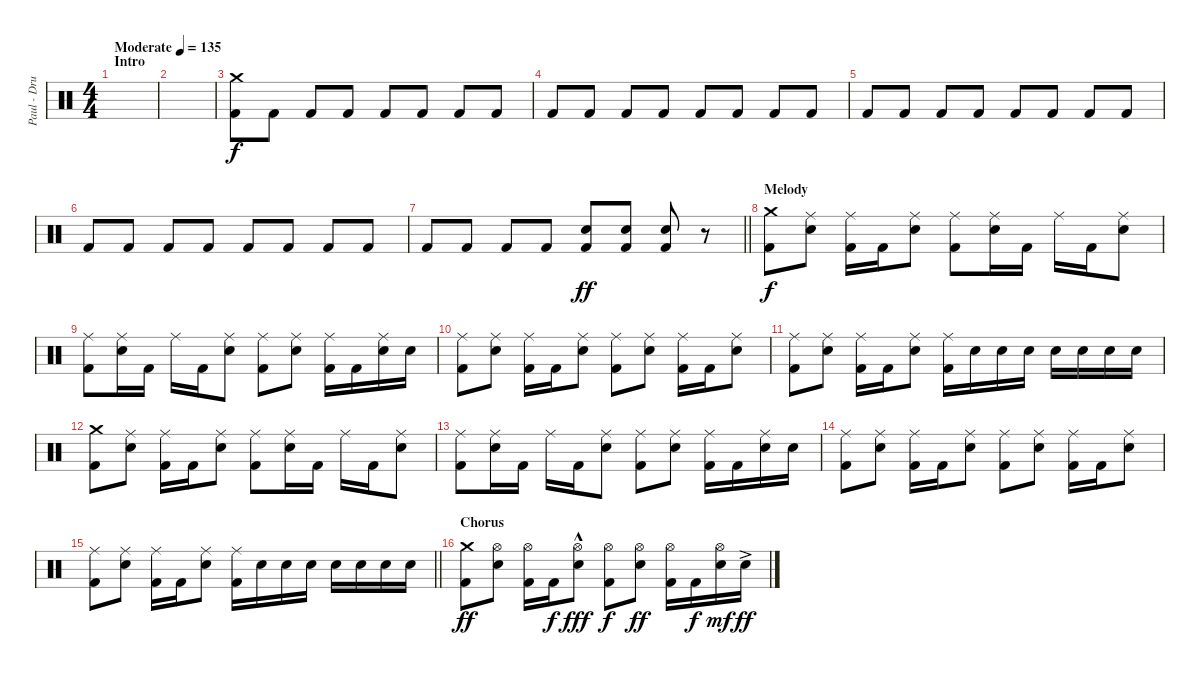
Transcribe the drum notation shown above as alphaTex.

\track ("Paul - Drums" "Paul - Dru") {instrument percussion}
\staff {score}
\articulation defaults
\ts (4 4)
\section ("" "Intro")
\tempo (135 "Moderate")
\clef neutral
\ks c
|
|
("Crash medium (hit)" "Kick (hit) 2").8 "Kick (hit) 2".8{dy f} "Kick (hit) 2".8 "Kick (hit) 2".8 "Kick (hit) 2".8 "Kick (hit) 2".8 "Kick (hit) 2".8 "Kick (hit) 2".8 |
"Kick (hit) 2".8 "Kick (hit) 2".8 "Kick (hit) 2".8 "Kick (hit) 2".8 "Kick (hit) 2".8 "Kick (hit) 2".8 "Kick (hit) 2".8 "Kick (hit) 2".8 |
"Kick (hit) 2".8 "Kick (hit) 2".8 "Kick (hit) 2".8 "Kick (hit) 2".8 "Kick (hit) 2".8 "Kick (hit) 2".8 "Kick (hit) 2".8 "Kick (hit) 2".8 |
"Kick (hit) 2".8 "Kick (hit) 2".8 "Kick (hit) 2".8 "Kick (hit) 2".8 "Kick (hit) 2".8 "Kick (hit) 2".8 "Kick (hit) 2".8 "Kick (hit) 2".8 |
\barLineRight lightlight "Kick (hit) 2".8 "Kick (hit) 2".8 "Kick (hit) 2".8 "Kick (hit) 2".8
("Electric Snare (hit)" "Kick (hit) 2").8{dy ff} ("Electric Snare (hit)" "Kick (hit) 2").8 ("Electric Snare (hit)" "Kick (hit) 2").8 r.8 |
\section ("" "Melody")
("Crash medium (hit)" "Kick (hit) 2").8{dy f} ("Ride (middle)" "Electric Snare (hit)").8 ("Ride (middle)" "Kick (hit) 2").16 "Kick (hit) 2".16 ("Ride (middle)" "Electric Snare (hit)").8 ("Ride (middle)" "Kick (hit) 2").8 ("Ride (middle)" "Electric Snare (hit)").16 "Kick (hit) 2".16 "Ride (middle)".16 "Kick (hit) 2".16 ("Ride (middle)" "Electric Snare (hit)").8 |
("Ride (middle)" "Kick (hit) 2").8 ("Ride (middle)" "Electric Snare (hit)").16 "Kick (hit) 2".16 "Ride (middle)".16 "Kick (hit) 2".16 ("Ride (middle)" "Electric Snare (hit)").8 ("Ride (middle)" "Kick (hit) 2").8 ("Ride (middle)" "Electric Snare (hit)").8 ("Ride (middle)" "Kick (hit) 2").16 "Kick (hit) 2".16 ("Ride (middle)" "Electric Snare (hit)").16 "Electric Snare (hit)".16 |
("Ride (middle)" "Kick (hit) 2").8 ("Ride (middle)" "Electric Snare (hit)").8 ("Ride (middle)" "Kick (hit) 2").16 "Kick (hit) 2".16 ("Ride (middle)" "Electric Snare (hit)").8 ("Ride (middle)" "Kick (hit) 2").8 ("Ride (middle)" "Electric Snare (hit)").8 ("Ride (middle)" "Kick (hit) 2").16 "Kick (hit) 2".16 ("Ride (middle)" "Electric Snare (hit)").8 |
("Ride (middle)" "Kick (hit) 2").8 ("Ride (middle)" "Electric Snare (hit)").8 ("Ride (middle)" "Kick (hit) 2").16 "Kick (hit) 2".16 ("Ride (middle)" "Electric Snare (hit)").8 ("Ride (middle)" "Kick (hit) 2").16 "Electric Snare (hit)".16 "Electric Snare (hit)".16 "Electric Snare (hit)".16 "Electric Snare (hit)".16 "Electric Snare (hit)".16 "Electric Snare (hit)".16 "Electric Snare (hit)".16 |
("Crash medium (hit)" "Kick (hit) 2").8 ("Ride (middle)" "Electric Snare (hit)").8 ("Ride (middle)" "Kick (hit) 2").16 "Kick (hit) 2".16 ("Ride (middle)" "Electric Snare (hit)").8 ("Ride (middle)" "Kick (hit) 2").8 ("Ride (middle)" "Electric Snare (hit)").16 "Kick (hit) 2".16 "Ride (middle)".16 "Kick (hit) 2".16 ("Ride (middle)" "Electric Snare (hit)").8 |
("Ride (middle)" "Kick (hit) 2").8 ("Ride (middle)" "Electric Snare (hit)").16 "Kick (hit) 2".16 "Ride (middle)".16 "Kick (hit) 2".16 ("Ride (middle)" "Electric Snare (hit)").8 ("Ride (middle)" "Kick (hit) 2").8 ("Ride (middle)" "Electric Snare (hit)").8 ("Ride (middle)" "Kick (hit) 2").16 "Kick (hit) 2".16 ("Ride (middle)" "Electric Snare (hit)").16 "Electric Snare (hit)".16 |
("Ride (middle)" "Kick (hit) 2").8 ("Ride (middle)" "Electric Snare (hit)").8 ("Ride (middle)" "Kick (hit) 2").16 "Kick (hit) 2".16 ("Ride (middle)" "Electric Snare (hit)").8 ("Ride (middle)" "Kick (hit) 2").8 ("Ride (middle)" "Electric Snare (hit)").8 ("Ride (middle)" "Kick (hit) 2").16 "Kick (hit) 2".16 ("Ride (middle)" "Electric Snare (hit)").8 |
\barLineRight lightlight
("Ride (middle)" "Kick (hit) 2").8 ("Ride (middle)" "Electric Snare (hit)").8 ("Ride (middle)" "Kick (hit) 2").16 "Kick (hit) 2".16 ("Ride (middle)" "Electric Snare (hit)").8 ("Ride (middle)" "Kick (hit) 2").16 "Electric Snare (hit)".16 "Electric Snare (hit)".16 "Electric Snare (hit)".16 "Electric Snare (hit)".16 "Electric Snare (hit)".16 "Electric Snare (hit)".16 "Electric Snare (hit)".16 |
\section ("" "Chorus")
("Crash medium (hit)" "Kick (hit) 2").8{dy ff} ("Hi-Hat (open)" "Electric Snare (hit)").8 ("Hi-Hat (open)" "Kick (hit) 2").16 "Kick (hit) 2".16{dy f} ("Hi-Hat (open)" "Electric Snare (hit)"{hac}).8{dy fff} ("Hi-Hat (open)" "Kick (hit) 2").8{dy f} ("Hi-Hat (open)" "Electric Snare (hit)").8{dy ff} ("Hi-Hat (open)" "Kick (hit) 2").16 "Kick (hit) 2".16{dy f} ("Hi-Hat (open)" "Electric Snare (hit)").16{dy mf} "Electric Snare (hit)"{ac}.16{dy ff}
